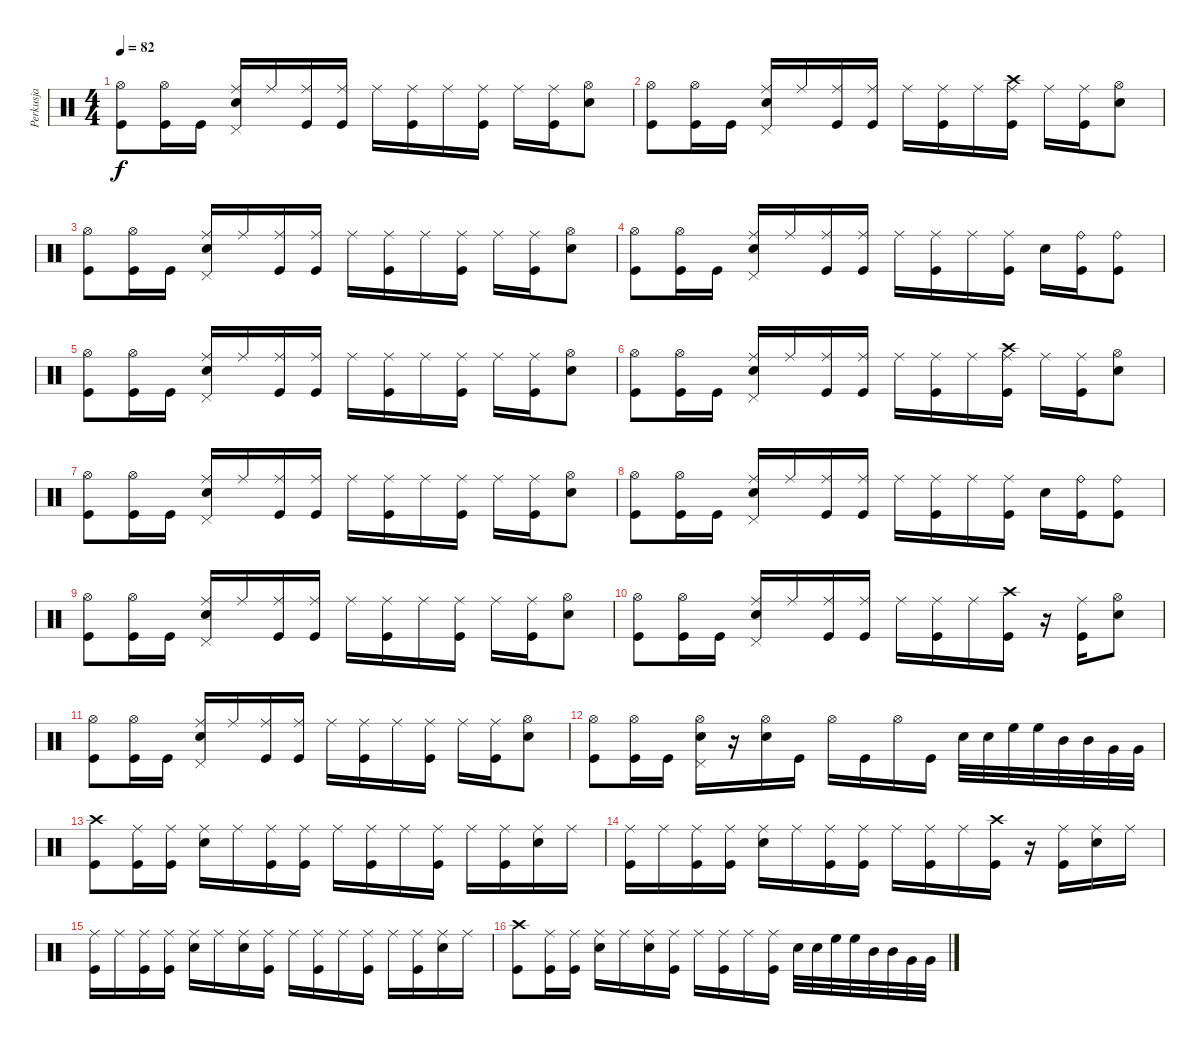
\track ("Perkusja" "Perkusja") {instrument percussion}
\staff {score}
\articulation defaults
\ts (4 4)
\tempo 82
\clef neutral
\ks c
("Hi-Hat (open)" "Kick (hit)").8{dy f} ("Hi-Hat (open)" "Kick (hit)").16 "Kick (hit)".16 ("Ride (middle)" "Electric Snare (hit)" "Pedal Hi-Hat (hit)").16 "Ride (middle)".16 ("Ride (middle)" "Kick (hit)").16 ("Ride (middle)" "Kick (hit)").16 "Ride (middle)".16 ("Ride (middle)" "Kick (hit)").16 "Ride (middle)".16 ("Ride (middle)" "Kick (hit)").16 "Ride (middle)".16 ("Ride (middle)" "Kick (hit)").16 ("Hi-Hat (open)" "Electric Snare (hit)").8 |
("Hi-Hat (open)" "Kick (hit)").8 ("Hi-Hat (open)" "Kick (hit)").16 "Kick (hit)".16 ("Ride (middle)" "Electric Snare (hit)" "Pedal Hi-Hat (hit)").16 "Ride (middle)".16 ("Ride (middle)" "Kick (hit)").16 ("Ride (middle)" "Kick (hit)").16 "Ride (middle)".16 ("Ride (middle)" "Kick (hit)").16 "Ride (middle)".16 ("Crash high (hit)" "Ride (middle)" "Kick (hit)").16 "Ride (middle)".16 ("Ride (middle)" "Kick (hit)").16 ("Hi-Hat (open)" "Electric Snare (hit)").8 |
("Hi-Hat (open)" "Kick (hit)").8 ("Hi-Hat (open)" "Kick (hit)").16 "Kick (hit)".16 ("Ride (middle)" "Electric Snare (hit)" "Pedal Hi-Hat (hit)").16 "Ride (middle)".16 ("Ride (middle)" "Kick (hit)").16 ("Ride (middle)" "Kick (hit)").16 "Ride (middle)".16 ("Ride (middle)" "Kick (hit)").16 "Ride (middle)".16 ("Ride (middle)" "Kick (hit)").16 "Ride (middle)".16 ("Ride (middle)" "Kick (hit)").16 ("Hi-Hat (open)" "Electric Snare (hit)").8 |
("Hi-Hat (open)" "Kick (hit)").8 ("Hi-Hat (open)" "Kick (hit)").16 "Kick (hit)".16 ("Ride (middle)" "Electric Snare (hit)" "Pedal Hi-Hat (hit)").16 "Ride (middle)".16 ("Ride (middle)" "Kick (hit)").16 ("Ride (middle)" "Kick (hit)").16 "Ride (middle)".16 ("Ride (middle)" "Kick (hit)").16 "Ride (middle)".16 ("Ride (middle)" "Kick (hit)").16 "Electric Snare (hit)".16 ("Ride (bell)" "Kick (hit)").16 ("Ride (bell)" "Kick (hit)").8 |
("Hi-Hat (open)" "Kick (hit)").8 ("Hi-Hat (open)" "Kick (hit)").16 "Kick (hit)".16 ("Ride (middle)" "Electric Snare (hit)" "Pedal Hi-Hat (hit)").16 "Ride (middle)".16 ("Ride (middle)" "Kick (hit)").16 ("Ride (middle)" "Kick (hit)").16 "Ride (middle)".16 ("Ride (middle)" "Kick (hit)").16 "Ride (middle)".16 ("Ride (middle)" "Kick (hit)").16 "Ride (middle)".16 ("Ride (middle)" "Kick (hit)").16 ("Hi-Hat (open)" "Electric Snare (hit)").8 |
("Hi-Hat (open)" "Kick (hit)").8 ("Hi-Hat (open)" "Kick (hit)").16 "Kick (hit)".16 ("Ride (middle)" "Electric Snare (hit)" "Pedal Hi-Hat (hit)").16 "Ride (middle)".16 ("Ride (middle)" "Kick (hit)").16 ("Ride (middle)" "Kick (hit)").16 "Ride (middle)".16 ("Ride (middle)" "Kick (hit)").16 "Ride (middle)".16 ("Crash high (hit)" "Ride (middle)" "Kick (hit)").16 "Ride (middle)".16 ("Ride (middle)" "Kick (hit)").16 ("Hi-Hat (open)" "Electric Snare (hit)").8 |
("Hi-Hat (open)" "Kick (hit)").8 ("Hi-Hat (open)" "Kick (hit)").16 "Kick (hit)".16 ("Ride (middle)" "Electric Snare (hit)" "Pedal Hi-Hat (hit)").16 "Ride (middle)".16 ("Ride (middle)" "Kick (hit)").16 ("Ride (middle)" "Kick (hit)").16 "Ride (middle)".16 ("Ride (middle)" "Kick (hit)").16 "Ride (middle)".16 ("Ride (middle)" "Kick (hit)").16 "Ride (middle)".16 ("Ride (middle)" "Kick (hit)").16 ("Hi-Hat (open)" "Electric Snare (hit)").8 |
("Hi-Hat (open)" "Kick (hit)").8 ("Hi-Hat (open)" "Kick (hit)").16 "Kick (hit)".16 ("Ride (middle)" "Electric Snare (hit)" "Pedal Hi-Hat (hit)").16 "Ride (middle)".16 ("Ride (middle)" "Kick (hit)").16 ("Ride (middle)" "Kick (hit)").16 "Ride (middle)".16 ("Ride (middle)" "Kick (hit)").16 "Ride (middle)".16 ("Ride (middle)" "Kick (hit)").16 "Electric Snare (hit)".16 ("Ride (bell)" "Kick (hit)").16 ("Ride (bell)" "Kick (hit)").8 |
("Hi-Hat (open)" "Kick (hit)").8 ("Hi-Hat (open)" "Kick (hit)").16 "Kick (hit)".16 ("Ride (middle)" "Electric Snare (hit)" "Pedal Hi-Hat (hit)").16 "Ride (middle)".16 ("Ride (middle)" "Kick (hit)").16 ("Ride (middle)" "Kick (hit)").16 "Ride (middle)".16 ("Ride (middle)" "Kick (hit)").16 "Ride (middle)".16 ("Ride (middle)" "Kick (hit)").16 "Ride (middle)".16 ("Ride (middle)" "Kick (hit)").16 ("Hi-Hat (open)" "Electric Snare (hit)").8 |
("Hi-Hat (open)" "Kick (hit)").8 ("Hi-Hat (open)" "Kick (hit)").16 "Kick (hit)".16 ("Ride (middle)" "Electric Snare (hit)" "Pedal Hi-Hat (hit)").16 "Ride (middle)".16 ("Ride (middle)" "Kick (hit)").16 ("Ride (middle)" "Kick (hit)").16 "Ride (middle)".16 ("Ride (middle)" "Kick (hit)").16 "Ride (middle)".16 ("Crash high (hit)" "Kick (hit)").16 r.16 ("Ride (middle)" "Kick (hit)").16 ("Hi-Hat (open)" "Electric Snare (hit)").8 |
("Hi-Hat (open)" "Kick (hit)").8 ("Hi-Hat (open)" "Kick (hit)").16 "Kick (hit)".16 ("Ride (middle)" "Electric Snare (hit)" "Pedal Hi-Hat (hit)").16 "Ride (middle)".16 ("Ride (middle)" "Kick (hit)").16 ("Ride (middle)" "Kick (hit)").16 "Ride (middle)".16 ("Ride (middle)" "Kick (hit)").16 "Ride (middle)".16 ("Ride (middle)" "Kick (hit)").16 "Ride (middle)".16 ("Ride (middle)" "Kick (hit)").16 ("Hi-Hat (open)" "Electric Snare (hit)").8 |
("Hi-Hat (open)" "Kick (hit)").8 ("Hi-Hat (open)" "Kick (hit)").16 "Kick (hit)".16 ("Hi-Hat (open)" "Electric Snare (hit)" "Pedal Hi-Hat (hit)").16 r.16 ("Hi-Hat (open)" "Electric Snare (hit)").16 "Kick (hit)".16 "Hi-Hat (open)".16 "Kick (hit)".16 "Hi-Hat (open)".16 "Kick (hit)".16 "Electric Snare (hit)".32 "Electric Snare (hit)".32 "High Floor Tom (hit)".32 "High Floor Tom (hit)".32 "Mid Tom (hit)".32 "Mid Tom (hit)".32 "Very Low Tom (hit)".32 "Very Low Tom (hit)".32 |
("Crash high (hit)" "Kick (hit)").8 ("Ride (middle)" "Kick (hit)").16 ("Ride (middle)" "Kick (hit)").16 ("Ride (middle)" "Electric Snare (hit)").16 "Ride (middle)".16 ("Ride (middle)" "Kick (hit)").16 ("Ride (middle)" "Kick (hit)").16 "Ride (middle)".16 ("Ride (middle)" "Kick (hit)").16 "Ride (middle)".16 ("Ride (middle)" "Kick (hit)").16 "Ride (middle)".16 ("Ride (middle)" "Kick (hit)").16 ("Ride (middle)" "Electric Snare (hit)").16 "Ride (middle)".16 |
("Ride (middle)" "Kick (hit)").16 "Ride (middle)".16 ("Ride (middle)" "Kick (hit)").16 ("Ride (middle)" "Kick (hit)").16 ("Ride (middle)" "Electric Snare (hit)").16 "Ride (middle)".16 ("Ride (middle)" "Kick (hit)").16 ("Ride (middle)" "Kick (hit)").16 "Ride (middle)".16 ("Ride (middle)" "Kick (hit)").16 "Ride (middle)".16 ("Crash high (hit)" "Kick (hit)").16 r.16 ("Ride (middle)" "Kick (hit)").16 ("Ride (middle)" "Electric Snare (hit)").16 "Ride (middle)".16 |
("Ride (middle)" "Kick (hit)").16 "Ride (middle)".16 ("Ride (middle)" "Kick (hit)").16 ("Ride (middle)" "Kick (hit)").16 ("Ride (middle)" "Electric Snare (hit)").16 "Ride (middle)".16 ("Ride (middle)" "Electric Snare (hit)").16 ("Ride (middle)" "Kick (hit)").16 "Ride (middle)".16 ("Ride (middle)" "Kick (hit)").16 "Ride (middle)".16 ("Ride (middle)" "Kick (hit)").16 "Ride (middle)".16 ("Ride (middle)" "Kick (hit)").16 ("Ride (middle)" "Electric Snare (hit)").16 "Ride (middle)".16 |
("Crash high (hit)" "Kick (hit)").8 ("Ride (middle)" "Kick (hit)").16 ("Ride (middle)" "Kick (hit)").16 ("Ride (middle)" "Electric Snare (hit)").16 "Ride (middle)".16 ("Ride (middle)" "Electric Snare (hit)").16 ("Ride (middle)" "Kick (hit)").16 "Ride (middle)".16 ("Ride (middle)" "Kick (hit)").16 "Ride (middle)".16 ("Ride (middle)" "Kick (hit)").16 "Electric Snare (hit)".32 "Electric Snare (hit)".32 "High Floor Tom (hit)".32 "High Floor Tom (hit)".32 "Mid Tom (hit)".32 "Mid Tom (hit)".32 "Very Low Tom (hit)".32 "Very Low Tom (hit)".32
